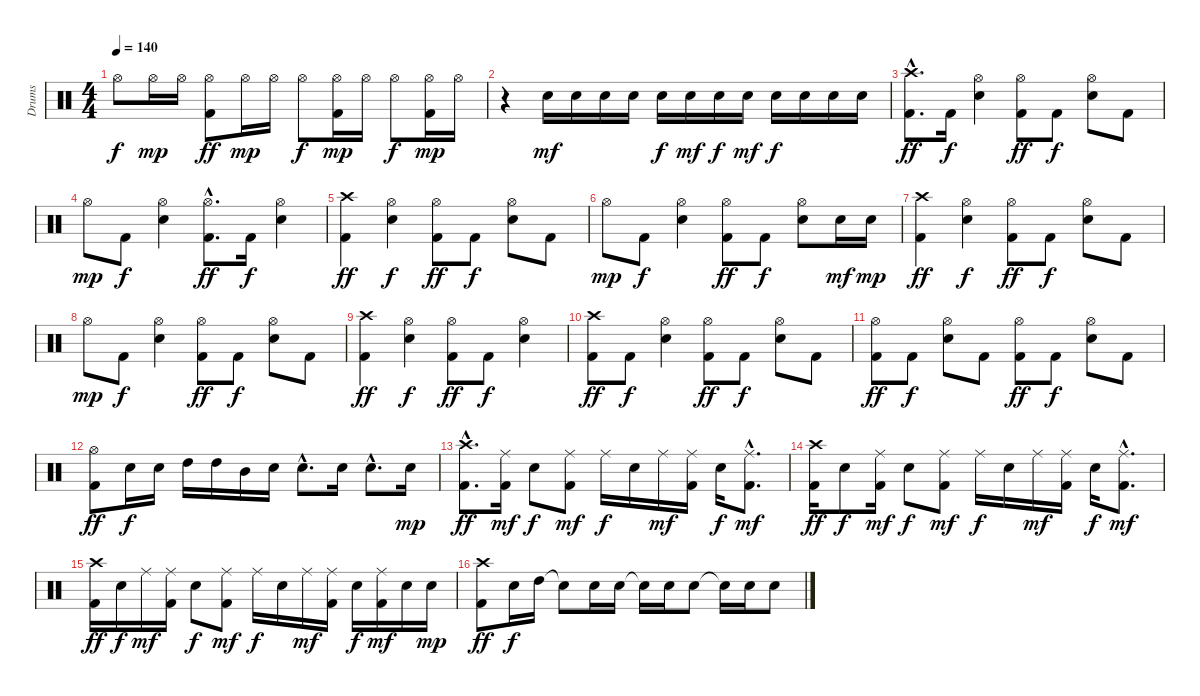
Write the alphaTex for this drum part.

\track ("Drums" "Drums") {instrument percussion}
\staff {score}
\articulation defaults
\ts (4 4)
\tempo 140
\clef neutral
\ks c "Hi-Hat (open)".8{dy f} "Hi-Hat (open)".16{dy mp} "Hi-Hat (open)".16
("Hi-Hat (open)" "Kick (hit) 2").8{dy ff} "Hi-Hat (open)".16{dy mp} "Hi-Hat (open)".16 "Hi-Hat (open)".8{dy f} ("Hi-Hat (open)" "Kick (hit) 2").16{dy mp} "Hi-Hat (open)".16 "Hi-Hat (open)".8{dy f} ("Hi-Hat (open)" "Kick (hit) 2").16{dy mp} "Hi-Hat (open)".16 |
r.4 "Electric Snare (hit)".16{dy mf} "Electric Snare (hit)".16 "Electric Snare (hit)".16 "Electric Snare (hit)".16 "Electric Snare (hit)".16{dy f} "Electric Snare (hit)".16{dy mf} "Electric Snare (hit)".16{dy f} "Electric Snare (hit)".16{dy mf} "Electric Snare (hit)".16{dy f} "Electric Snare (hit)".16 "Electric Snare (hit)".16 "Electric Snare (hit)".16 |
("Crash high (hit)"{hac} "Kick (hit) 2"{hac}).8{d dy ff} "Kick (hit) 2".16{dy f} ("Hi-Hat (open)" "Electric Snare (hit)").4 ("Hi-Hat (open)" "Kick (hit) 2").8{dy ff} "Kick (hit) 2".8{dy f} ("Hi-Hat (open)" "Electric Snare (hit)").8 "Kick (hit) 2".8 |
"Hi-Hat (open)".8{dy mp} "Kick (hit) 2".8{dy f} ("Hi-Hat (open)" "Electric Snare (hit)").4 ("Hi-Hat (open)"{hac} "Kick (hit) 2"{hac}).8{d dy ff} "Kick (hit) 2".16{dy f} ("Hi-Hat (open)" "Electric Snare (hit)").4 |
("Crash high (hit)" "Kick (hit) 2").4{dy ff} ("Hi-Hat (open)" "Electric Snare (hit)").4{dy f} ("Hi-Hat (open)" "Kick (hit) 2").8{dy ff} "Kick (hit) 2".8{dy f} ("Hi-Hat (open)" "Electric Snare (hit)").8 "Kick (hit) 2".8 |
"Hi-Hat (open)".8{dy mp} "Kick (hit) 2".8{dy f} ("Hi-Hat (open)" "Electric Snare (hit)").4 ("Hi-Hat (open)" "Kick (hit) 2").8{dy ff} "Kick (hit) 2".8{dy f} ("Hi-Hat (open)" "Electric Snare (hit)").8 "Electric Snare (hit)".16{dy mf} "Electric Snare (hit)".16{dy mp} |
("Crash high (hit)" "Kick (hit) 2").4{dy ff} ("Hi-Hat (open)" "Electric Snare (hit)").4{dy f} ("Hi-Hat (open)" "Kick (hit) 2").8{dy ff} "Kick (hit) 2".8{dy f} ("Hi-Hat (open)" "Electric Snare (hit)").8 "Kick (hit) 2".8 |
"Hi-Hat (open)".8{dy mp} "Kick (hit) 2".8{dy f} ("Hi-Hat (open)" "Electric Snare (hit)").4 ("Hi-Hat (open)" "Kick (hit) 2").8{dy ff} "Kick (hit) 2".8{dy f} ("Hi-Hat (open)" "Electric Snare (hit)").8 "Kick (hit) 2".8 |
("Crash high (hit)" "Kick (hit) 2").4{dy ff} ("Hi-Hat (open)" "Electric Snare (hit)").4{dy f} ("Hi-Hat (open)" "Kick (hit) 2").8{dy ff} "Kick (hit) 2".8{dy f} ("Hi-Hat (open)" "Electric Snare (hit)").4 |
("Crash high (hit)" "Kick (hit) 2").8{dy ff} "Kick (hit) 2".8{dy f} ("Hi-Hat (open)" "Electric Snare (hit)").4 ("Hi-Hat (open)" "Kick (hit) 2").8{dy ff} "Kick (hit) 2".8{dy f} ("Hi-Hat (open)" "Electric Snare (hit)").8 "Kick (hit) 2".8 |
("Hi-Hat (open)" "Kick (hit) 2").8{dy ff} "Kick (hit) 2".8{dy f} ("Hi-Hat (open)" "Electric Snare (hit)").8 "Kick (hit) 2".8 ("Hi-Hat (open)" "Kick (hit) 2").8{dy ff} "Kick (hit) 2".8{dy f} ("Hi-Hat (open)" "Electric Snare (hit)").8 "Kick (hit) 2".8 |
("Hi-Hat (open)" "Kick (hit) 2").8{dy ff} "Electric Snare (hit)".16{dy f} "Electric Snare (hit)".16 "High Tom (hit)".16 "High Tom (hit)".16 "Mid Tom (hit)".16 "Electric Snare (hit)".16 "Electric Snare (hit)"{hac}.8{d} "Electric Snare (hit)".16 "Electric Snare (hit)"{hac}.8{d} "Electric Snare (hit)".16{dy mp} |
("Crash high (hit)"{hac} "Kick (hit) 2"{hac}).8{d dy ff} ("Ride (middle)" "Kick (hit) 2").16{dy mf} "Electric Snare (hit)".8{dy f} ("Ride (middle)" "Kick (hit) 2").8{dy mf} "Ride (middle)".16{dy f} "Electric Snare (hit)".16 "Ride (middle)".16{dy mf} ("Ride (middle)" "Kick (hit) 2").16 "Electric Snare (hit)".16{dy f} ("Ride (middle)"{hac} "Kick (hit) 2"{hac}).8{d dy mf} |
("Crash high (hit)" "Kick (hit) 2").16{dy ff} "Electric Snare (hit)".8{dy f} ("Ride (middle)" "Kick (hit) 2").16{dy mf} "Electric Snare (hit)".8{dy f} ("Ride (middle)" "Kick (hit) 2").8{dy mf} "Ride (middle)".16{dy f} "Electric Snare (hit)".16 "Ride (middle)".16{dy mf} ("Ride (middle)" "Kick (hit) 2").16 "Electric Snare (hit)".16{dy f} ("Ride (middle)"{hac} "Kick (hit) 2"{hac}).8{d dy mf} |
("Crash high (hit)" "Kick (hit) 2").16{dy ff} "Electric Snare (hit)".16{dy f} "Ride (middle)".16{dy mf} ("Ride (middle)" "Kick (hit) 2").16 "Electric Snare (hit)".8{dy f} ("Ride (middle)" "Kick (hit) 2").8{dy mf} "Ride (middle)".16{dy f} "Electric Snare (hit)".16 "Ride (middle)".16{dy mf} ("Ride (middle)" "Kick (hit) 2").16 "Electric Snare (hit)".16{dy f} ("Ride (middle)" "Kick (hit) 2").16{dy mf} "Electric Snare (hit)".16 "Electric Snare (hit)".16{dy mp} |
("Crash high (hit)" "Kick (hit) 2").8{dy ff} "Electric Snare (hit)".16{dy f} "High Tom (hit)".16 "Snare (hit)"{t}.8 "Electric Snare (hit)".16 "Electric Snare (hit)".16 "Snare (hit)"{t}.16 "Electric Snare (hit)".16 "Electric Snare (hit)".8 "Snare (hit)"{t}.16 "Electric Snare (hit)".16 "Electric Snare (hit)".8
